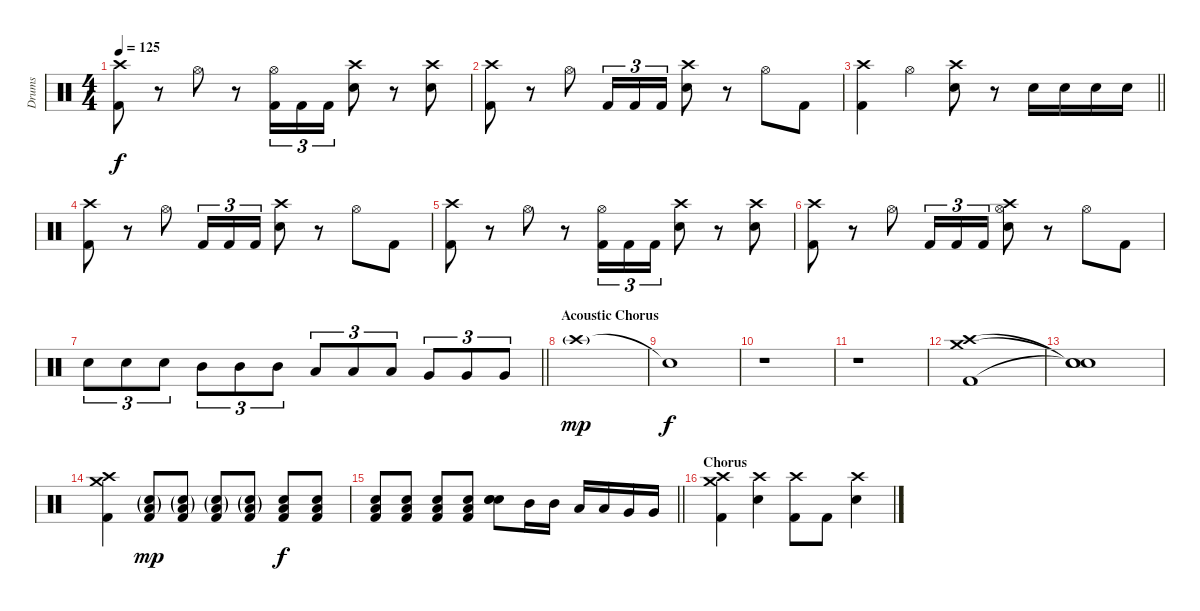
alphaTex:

\track ("Drums" "Drums") {instrument percussion}
\staff {score}
\articulation defaults
\ts (4 4)
\tempo 125
\clef neutral
\ks c
("Crash high (hit)" "Kick (hit) 2").8{dy f} r.8 "Hi-Hat (open)".8 r.8 ("Hi-Hat (open)" "Kick (hit) 2").16{tu (3 2)} "Kick (hit) 2".16{tu (3 2)} "Kick (hit) 2".16{tu (3 2)} ("Crash high (hit)" "Snare (hit) 2").8 r.8 ("Crash high (hit)" "Snare (hit) 2").8 |
("Crash high (hit)" "Kick (hit) 2").8 r.8 "Hi-Hat (open)".8 "Kick (hit) 2".16{tu (3 2)} "Kick (hit) 2".16{tu (3 2)} "Kick (hit) 2".16{tu (3 2)} ("Crash high (hit)" "Snare (hit) 2").8 r.8 "Hi-Hat (open)".8 "Kick (hit) 2".8 |
\barLineRight lightlight
("Crash high (hit)" "Kick (hit) 2").4 "Hi-Hat (open)".4 ("Crash high (hit)" "Snare (hit) 2").8 r.8 "Snare (hit) 2".16 "Snare (hit) 2".16 "Snare (hit) 2".16 "Snare (hit) 2".16 |
("Crash high (hit)" "Kick (hit) 2").8 r.8 "Hi-Hat (open)".8 "Kick (hit) 2".16{tu (3 2)} "Kick (hit) 2".16{tu (3 2)} "Kick (hit) 2".16{tu (3 2)} ("Crash high (hit)" "Snare (hit) 2").8 r.8 "Hi-Hat (open)".8 "Kick (hit) 2".8 |
("Crash high (hit)" "Kick (hit) 2").8 r.8 "Hi-Hat (open)".8 r.8 ("Hi-Hat (open)" "Kick (hit) 2").16{tu (3 2)} "Kick (hit) 2".16{tu (3 2)} "Kick (hit) 2".16{tu (3 2)} ("Crash high (hit)" "Snare (hit) 2").8 r.8 ("Crash high (hit)" "Snare (hit) 2").8 |
("Crash high (hit)" "Kick (hit) 2").8 r.8 "Hi-Hat (open)".8 "Kick (hit) 2".16{tu (3 2)} "Kick (hit) 2".16{tu (3 2)} "Kick (hit) 2".16{tu (3 2)} ("Hi-Hat (open)" "Crash high (hit)" "Snare (hit) 2").8 r.8 "Hi-Hat (open)".8 "Kick (hit) 2".8 |
\barLineRight lightlight "Snare (hit) 2".8{tu (3 2)} "Snare (hit) 2".8{tu (3 2)} "Snare (hit) 2".8{tu (3 2)} "Mid Tom (hit)".8{tu (3 2)} "Mid Tom (hit)".8{tu (3 2)} "Mid Tom (hit)".8{tu (3 2)} "Low Tom (hit)".8{tu (3 2)} "Low Tom (hit)".8{tu (3 2)} "Low Tom (hit)".8{tu (3 2)} "Very Low Tom (hit)".8{tu (3 2)} "Very Low Tom (hit)".8{tu (3 2)} "Very Low Tom (hit)".8{tu (3 2)}
|
\section ("" "Acoustic Chorus")
"Crash high (hit)"{g}.1{dy mp} |
"Snare (hit)"{t}.1{dy f} |
r.1 |
r.1 |
("Crash high (hit)" "Crash medium (hit)" "Kick (hit) 2").1 |
("Snare (hit)"{t} "Snare (hit)"{t} "Snare (hit)"{t}).1 |
("Crash high (hit)" "Crash medium (hit)" "Kick (hit) 2").4 ("Low Floor Tom (hit)"{g} "Snare (hit) 2"{g} "Kick (hit) 2").8{dy mp} ("Low Floor Tom (hit)"{g} "Snare (hit) 2"{g} "Kick (hit) 2").8 ("Low Floor Tom (hit)"{g} "Snare (hit) 2"{g} "Kick (hit) 2").8 ("Low Floor Tom (hit)"{g} "Snare (hit) 2"{g} "Kick (hit) 2").8 ("Low Floor Tom (hit)" "Snare (hit) 2" "Kick (hit) 2").8{dy f} ("Low Floor Tom (hit)" "Snare (hit) 2" "Kick (hit) 2").8 |
\barLineRight lightlight
("Low Floor Tom (hit)" "Snare (hit) 2" "Kick (hit) 2").8 ("Low Floor Tom (hit)" "Snare (hit) 2" "Kick (hit) 2").8 ("Low Floor Tom (hit)" "Snare (hit) 2" "Kick (hit) 2").8 ("Low Floor Tom (hit)" "Snare (hit) 2" "Kick (hit) 2").8 ("Snare (hit) 2" "Snare (hit) 2" "Snare (hit) 2").8 "Mid Tom (hit)".16 "Mid Tom (hit)".16 "Low Tom (hit)".16 "Low Tom (hit)".16 "Very Low Tom (hit)".16 "Very Low Tom (hit)".16 |
\section ("" "Chorus")
("Crash medium (hit)" "Crash high (hit)" "Kick (hit) 2").4 ("Crash high (hit)" "Snare (hit) 2").4 ("Crash high (hit)" "Kick (hit) 2").8 "Kick (hit) 2".8 ("Crash high (hit)" "Snare (hit) 2").4
